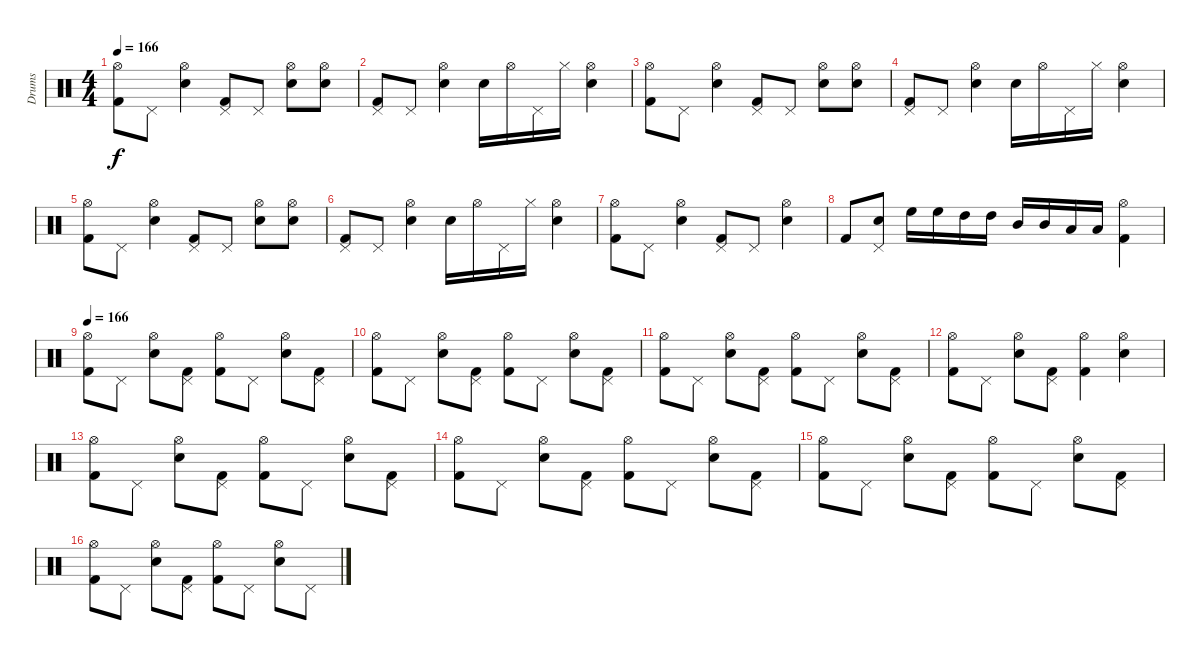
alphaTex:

\track ("Drums" "Drums") {instrument percussion}
\staff {score}
\articulation defaults
\ts (4 4)
\tempo 166
\clef neutral
\ks c
("Kick (hit) 2" "Hi-Hat (open)").8{dy f} "Pedal Hi-Hat (hit)".8 ("Snare (hit) 2" "Hi-Hat (open)").4 ("Kick (hit) 2" "Pedal Hi-Hat (hit)").8 "Pedal Hi-Hat (hit)".8 ("Snare (hit) 2" "Hi-Hat (open)").8 ("Snare (hit) 2" "Hi-Hat (open)").8 |
("Kick (hit) 2" "Pedal Hi-Hat (hit)").8 "Pedal Hi-Hat (hit)".8 ("Snare (hit) 2" "Hi-Hat (open)").4 "Snare (hit) 2".16 "Hi-Hat (open)".16 "Pedal Hi-Hat (hit)".16 "Hi-Hat (closed)".16 ("Snare (hit) 2" "Hi-Hat (open)").4 |
("Kick (hit) 2" "Hi-Hat (open)").8 "Pedal Hi-Hat (hit)".8 ("Snare (hit) 2" "Hi-Hat (open)").4 ("Kick (hit) 2" "Pedal Hi-Hat (hit)").8 "Pedal Hi-Hat (hit)".8 ("Snare (hit) 2" "Hi-Hat (open)").8 ("Snare (hit) 2" "Hi-Hat (open)").8 |
("Kick (hit) 2" "Pedal Hi-Hat (hit)").8 "Pedal Hi-Hat (hit)".8 ("Snare (hit) 2" "Hi-Hat (open)").4 "Snare (hit) 2".16 "Hi-Hat (open)".16 "Pedal Hi-Hat (hit)".16 "Hi-Hat (closed)".16 ("Snare (hit) 2" "Hi-Hat (open)").4 |
("Kick (hit) 2" "Hi-Hat (open)").8 "Pedal Hi-Hat (hit)".8 ("Snare (hit) 2" "Hi-Hat (open)").4 ("Kick (hit) 2" "Pedal Hi-Hat (hit)").8 "Pedal Hi-Hat (hit)".8 ("Snare (hit) 2" "Hi-Hat (open)").8 ("Snare (hit) 2" "Hi-Hat (open)").8 |
("Kick (hit) 2" "Pedal Hi-Hat (hit)").8 "Pedal Hi-Hat (hit)".8 ("Snare (hit) 2" "Hi-Hat (open)").4 "Snare (hit) 2".16 "Hi-Hat (open)".16 "Pedal Hi-Hat (hit)".16 "Hi-Hat (closed)".16 ("Snare (hit) 2" "Hi-Hat (open)").4 |
("Kick (hit) 2" "Hi-Hat (open)").8 "Pedal Hi-Hat (hit)".8 ("Snare (hit) 2" "Hi-Hat (open)").4 ("Kick (hit) 2" "Pedal Hi-Hat (hit)").8 "Pedal Hi-Hat (hit)".8 ("Snare (hit) 2" "Hi-Hat (open)").4 |
"Kick (hit) 2".8 ("Snare (hit) 2" "Pedal Hi-Hat (hit)").8 "High Floor Tom (hit)".16 "High Floor Tom (hit)".16 "High Tom (hit)".16 "High Tom (hit)".16 "Mid Tom (hit)".16 "Mid Tom (hit)".16 "Low Tom (hit)".16 "Low Tom (hit)".16 ("Kick (hit) 2" "Hi-Hat (open)").4 |
\tempo 166
("Kick (hit) 2" "Hi-Hat (open)").8 "Pedal Hi-Hat (hit)".8 ("Snare (hit) 2" "Hi-Hat (open)").8 ("Kick (hit) 2" "Pedal Hi-Hat (hit)").8 ("Kick (hit) 2" "Hi-Hat (open)").8 "Pedal Hi-Hat (hit)".8 ("Snare (hit) 2" "Hi-Hat (open)").8 ("Kick (hit) 2" "Pedal Hi-Hat (hit)").8 |
("Kick (hit) 2" "Hi-Hat (open)").8 "Pedal Hi-Hat (hit)".8 ("Snare (hit) 2" "Hi-Hat (open)").8 ("Kick (hit) 2" "Pedal Hi-Hat (hit)").8 ("Kick (hit) 2" "Hi-Hat (open)").8 "Pedal Hi-Hat (hit)".8 ("Snare (hit) 2" "Hi-Hat (open)").8 ("Kick (hit) 2" "Pedal Hi-Hat (hit)").8 |
("Kick (hit) 2" "Hi-Hat (open)").8 "Pedal Hi-Hat (hit)".8 ("Snare (hit) 2" "Hi-Hat (open)").8 ("Kick (hit) 2" "Pedal Hi-Hat (hit)").8 ("Kick (hit) 2" "Hi-Hat (open)").8 "Pedal Hi-Hat (hit)".8 ("Snare (hit) 2" "Hi-Hat (open)").8 ("Kick (hit) 2" "Pedal Hi-Hat (hit)").8 |
("Kick (hit) 2" "Hi-Hat (open)").8 "Pedal Hi-Hat (hit)".8 ("Snare (hit) 2" "Hi-Hat (open)").8 ("Kick (hit) 2" "Pedal Hi-Hat (hit)").8 ("Kick (hit) 2" "Hi-Hat (open)").4 ("Snare (hit) 2" "Hi-Hat (open)").4 |
("Kick (hit) 2" "Hi-Hat (open)").8 "Pedal Hi-Hat (hit)".8 ("Snare (hit) 2" "Hi-Hat (open)").8 ("Kick (hit) 2" "Pedal Hi-Hat (hit)").8 ("Kick (hit) 2" "Hi-Hat (open)").8 "Pedal Hi-Hat (hit)".8 ("Snare (hit) 2" "Hi-Hat (open)").8 ("Kick (hit) 2" "Pedal Hi-Hat (hit)").8 |
("Kick (hit) 2" "Hi-Hat (open)").8 "Pedal Hi-Hat (hit)".8 ("Snare (hit) 2" "Hi-Hat (open)").8 ("Kick (hit) 2" "Pedal Hi-Hat (hit)").8 ("Kick (hit) 2" "Hi-Hat (open)").8 "Pedal Hi-Hat (hit)".8 ("Snare (hit) 2" "Hi-Hat (open)").8 ("Kick (hit) 2" "Pedal Hi-Hat (hit)").8 |
("Kick (hit) 2" "Hi-Hat (open)").8 "Pedal Hi-Hat (hit)".8 ("Snare (hit) 2" "Hi-Hat (open)").8 ("Kick (hit) 2" "Pedal Hi-Hat (hit)").8 ("Kick (hit) 2" "Hi-Hat (open)").8 "Pedal Hi-Hat (hit)".8 ("Snare (hit) 2" "Hi-Hat (open)").8 ("Kick (hit) 2" "Pedal Hi-Hat (hit)").8 |
("Kick (hit) 2" "Hi-Hat (open)").8 "Pedal Hi-Hat (hit)".8 ("Snare (hit) 2" "Hi-Hat (open)").8 ("Kick (hit) 2" "Pedal Hi-Hat (hit)").8 ("Kick (hit) 2" "Hi-Hat (open)").8 "Pedal Hi-Hat (hit)".8 ("Snare (hit) 2" "Hi-Hat (open)").8 "Pedal Hi-Hat (hit)".8
